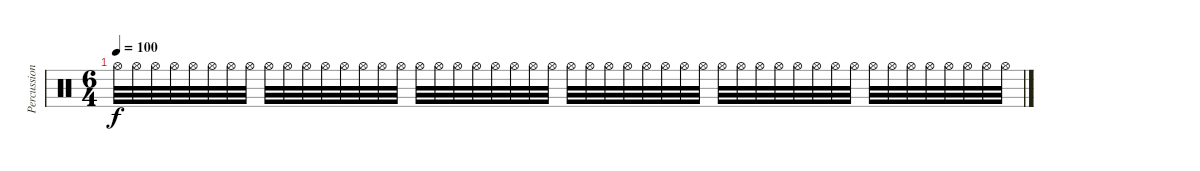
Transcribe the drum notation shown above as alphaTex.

\track ("Percussion 1" "Percussion") {instrument percussion}
\staff {score}
\articulation defaults
\ts (6 4)
\tempo 100
\clef neutral
\ks c "Hi-Hat (open)".32{dy f} "Hi-Hat (open)".32 "Hi-Hat (open)".32 "Hi-Hat (open)".32 "Hi-Hat (open)".32 "Hi-Hat (open)".32 "Hi-Hat (open)".32 "Hi-Hat (open)".32 "Hi-Hat (open)".32 "Hi-Hat (open)".32 "Hi-Hat (open)".32 "Hi-Hat (open)".32 "Hi-Hat (open)".32 "Hi-Hat (open)".32 "Hi-Hat (open)".32 "Hi-Hat (open)".32 "Hi-Hat (open)".32 "Hi-Hat (open)".32 "Hi-Hat (open)".32 "Hi-Hat (open)".32 "Hi-Hat (open)".32 "Hi-Hat (open)".32 "Hi-Hat (open)".32 "Hi-Hat (open)".32 "Hi-Hat (open)".32 "Hi-Hat (open)".32 "Hi-Hat (open)".32 "Hi-Hat (open)".32 "Hi-Hat (open)".32 "Hi-Hat (open)".32 "Hi-Hat (open)".32 "Hi-Hat (open)".32 "Hi-Hat (open)".32 "Hi-Hat (open)".32 "Hi-Hat (open)".32 "Hi-Hat (open)".32 "Hi-Hat (open)".32 "Hi-Hat (open)".32 "Hi-Hat (open)".32 "Hi-Hat (open)".32 "Hi-Hat (open)".32 "Hi-Hat (open)".32 "Hi-Hat (open)".32 "Hi-Hat (open)".32 "Hi-Hat (open)".32 "Hi-Hat (open)".32 "Hi-Hat (open)".32 "Hi-Hat (open)".32
